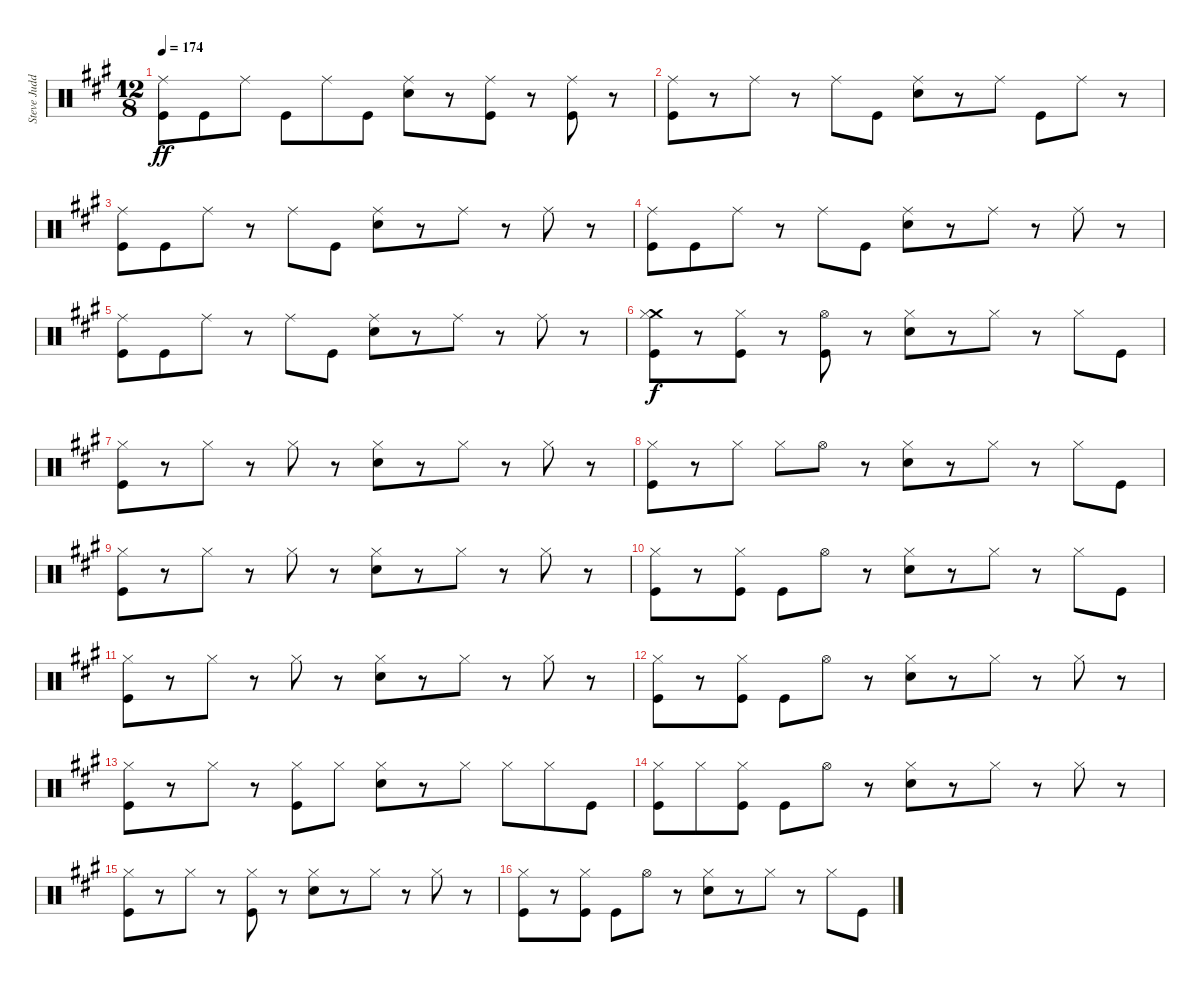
\track ("Steve Judd (Drums)" "Steve Judd") {instrument percussion}
\staff {score}
\articulation defaults
\ts (12 8)
\tempo 174
\clef neutral
\ks a
("Ride (middle)" "Kick (hit)").8{dy ff} "Kick (hit)".8 "Ride (middle)".8 "Kick (hit)".8 "Ride (middle)".8 "Kick (hit)".8 ("Ride (middle)" "Snare (hit) 2").8 r.8 ("Ride (middle)" "Kick (hit)").8 r.8 ("Ride (middle)" "Kick (hit)").8 r.8 |
("Ride (middle)" "Kick (hit)").8 r.8 "Ride (middle)".8 r.8 "Ride (middle)".8 "Kick (hit)".8 ("Ride (middle)" "Snare (hit) 2").8 r.8 "Ride (middle)".8 "Kick (hit)".8 "Ride (middle)".8 r.8 |
("Ride (middle)" "Kick (hit)").8 "Kick (hit)".8 "Ride (middle)".8 r.8 "Ride (middle)".8 "Kick (hit)".8 ("Ride (middle)" "Snare (hit) 2").8 r.8 "Ride (middle)".8 r.8 "Ride (middle)".8 r.8 |
("Ride (middle)" "Kick (hit)").8 "Kick (hit)".8 "Ride (middle)".8 r.8 "Ride (middle)".8 "Kick (hit)".8 ("Ride (middle)" "Snare (hit) 2").8 r.8 "Ride (middle)".8 r.8 "Ride (middle)".8 r.8 |
("Ride (middle)" "Kick (hit)").8 "Kick (hit)".8 "Ride (middle)".8 r.8 "Ride (middle)".8 "Kick (hit)".8 ("Ride (middle)" "Snare (hit) 2").8 r.8 "Ride (middle)".8 r.8 "Ride (middle)".8 r.8 |
("Crash medium (hit)" "Hi-Hat (closed)" "Kick (hit)").8{dy f} r.8 ("Hi-Hat (closed)" "Kick (hit)").8 r.8 ("Hi-Hat (open)" "Kick (hit)").8 r.8 ("Snare (hit) 2" "Hi-Hat (closed)").8 r.8 "Hi-Hat (closed)".8 r.8 "Hi-Hat (closed)".8 "Kick (hit)".8 |
("Hi-Hat (closed)" "Kick (hit)").8 r.8 "Hi-Hat (closed)".8 r.8 "Hi-Hat (closed)".8 r.8 ("Snare (hit) 2" "Hi-Hat (closed)").8 r.8 "Hi-Hat (closed)".8 r.8 "Hi-Hat (closed)".8 r.8 |
("Hi-Hat (closed)" "Kick (hit)").8 r.8 "Hi-Hat (closed)".8 "Hi-Hat (closed)".8 "Hi-Hat (open)".8 r.8 ("Snare (hit) 2" "Hi-Hat (closed)").8 r.8 "Hi-Hat (closed)".8 r.8 "Hi-Hat (closed)".8 "Kick (hit)".8 |
("Hi-Hat (closed)" "Kick (hit)").8 r.8 "Hi-Hat (closed)".8 r.8 "Hi-Hat (closed)".8 r.8 ("Snare (hit) 2" "Hi-Hat (closed)").8 r.8 "Hi-Hat (closed)".8 r.8 "Hi-Hat (closed)".8 r.8 |
("Hi-Hat (closed)" "Kick (hit)").8 r.8 ("Hi-Hat (closed)" "Kick (hit)").8 "Kick (hit)".8 "Hi-Hat (open)".8 r.8 ("Snare (hit) 2" "Hi-Hat (closed)").8 r.8 "Hi-Hat (closed)".8 r.8 "Hi-Hat (closed)".8 "Kick (hit)".8 |
("Hi-Hat (closed)" "Kick (hit)").8 r.8 "Hi-Hat (closed)".8 r.8 "Hi-Hat (closed)".8 r.8 ("Snare (hit) 2" "Hi-Hat (closed)").8 r.8 "Hi-Hat (closed)".8 r.8 "Hi-Hat (closed)".8 r.8 |
("Hi-Hat (closed)" "Kick (hit)").8 r.8 ("Hi-Hat (closed)" "Kick (hit)").8 "Kick (hit)".8 "Hi-Hat (open)".8 r.8 ("Snare (hit) 2" "Hi-Hat (closed)").8 r.8 "Hi-Hat (closed)".8 r.8 "Hi-Hat (closed)".8 r.8 |
("Hi-Hat (closed)" "Kick (hit)").8 r.8 "Hi-Hat (closed)".8 r.8 ("Hi-Hat (closed)" "Kick (hit)").8 "Hi-Hat (closed)".8 ("Snare (hit) 2" "Hi-Hat (closed)").8 r.8 "Hi-Hat (closed)".8 "Hi-Hat (closed)".8 "Hi-Hat (closed)".8 "Kick (hit)".8 |
("Hi-Hat (closed)" "Kick (hit)").8 "Hi-Hat (closed)".8 ("Hi-Hat (closed)" "Kick (hit)").8 "Kick (hit)".8 "Hi-Hat (open)".8 r.8 ("Snare (hit) 2" "Hi-Hat (closed)").8 r.8 "Hi-Hat (closed)".8 r.8 "Hi-Hat (closed)".8 r.8 |
("Hi-Hat (closed)" "Kick (hit)").8 r.8 "Hi-Hat (closed)".8 r.8 ("Hi-Hat (closed)" "Kick (hit)").8 r.8 ("Snare (hit) 2" "Hi-Hat (closed)").8 r.8 "Hi-Hat (closed)".8 r.8 "Hi-Hat (closed)".8 r.8 |
("Hi-Hat (closed)" "Kick (hit)").8 r.8 ("Hi-Hat (closed)" "Kick (hit)").8 "Kick (hit)".8 "Hi-Hat (open)".8 r.8 ("Snare (hit) 2" "Hi-Hat (closed)").8 r.8 "Hi-Hat (closed)".8 r.8 "Hi-Hat (closed)".8 "Kick (hit)".8
